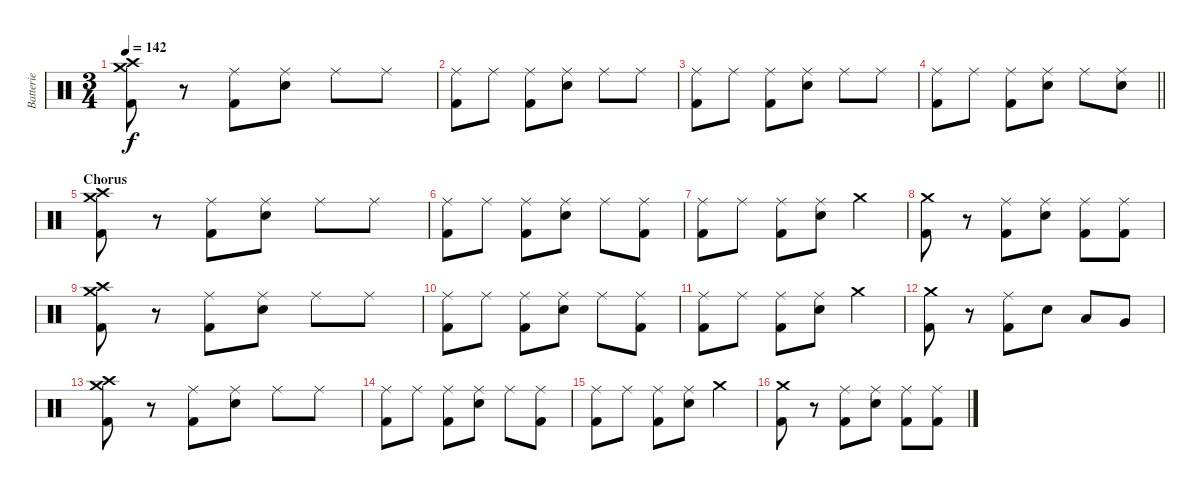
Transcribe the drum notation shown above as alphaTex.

\track ("Batterie" "Batterie") {instrument percussion}
\staff {score}
\articulation defaults
\ts (3 4)
\tempo 142
\clef neutral
\ks c
("Crash medium (hit)" "Crash high (hit)" "Kick (hit) 2").8{dy f} r.8 ("Ride (middle)" "Kick (hit) 2").8 ("Ride (middle)" "Electric Snare (hit)").8 "Ride (middle)".8 "Ride (middle)".8 |
("Ride (middle)" "Kick (hit) 2").8 "Ride (middle)".8 ("Ride (middle)" "Kick (hit) 2").8 ("Ride (middle)" "Electric Snare (hit)").8 "Ride (middle)".8 "Ride (middle)".8 |
("Ride (middle)" "Kick (hit) 2").8 "Ride (middle)".8 ("Ride (middle)" "Kick (hit) 2").8 ("Ride (middle)" "Electric Snare (hit)").8 "Ride (middle)".8 "Ride (middle)".8 |
\barLineRight lightlight
("Ride (middle)" "Kick (hit) 2").8 "Ride (middle)".8 ("Ride (middle)" "Kick (hit) 2").8 ("Ride (middle)" "Electric Snare (hit)").8 "Ride (middle)".8 ("Ride (middle)" "Electric Snare (hit)").8 |
\section ("" "Chorus")
("Crash medium (hit)" "Crash high (hit)" "Kick (hit) 2").8 r.8 ("Ride (middle)" "Kick (hit) 2").8 ("Ride (middle)" "Electric Snare (hit)").8 "Ride (middle)".8 "Ride (middle)".8 |
("Ride (middle)" "Kick (hit) 2").8 "Ride (middle)".8 ("Ride (middle)" "Kick (hit) 2").8 ("Ride (middle)" "Electric Snare (hit)").8 "Ride (middle)".8 ("Ride (middle)" "Kick (hit) 2").8 |
("Ride (middle)" "Kick (hit) 2").8 "Ride (middle)".8 ("Ride (middle)" "Kick (hit) 2").8 ("Ride (middle)" "Electric Snare (hit)").8 "Crash medium (hit)".4 |
("Crash medium (hit)" "Kick (hit) 2").8 r.8 ("Ride (middle)" "Kick (hit) 2").8 ("Ride (middle)" "Electric Snare (hit)").8 ("Ride (middle)" "Kick (hit) 2").8 ("Ride (middle)" "Kick (hit) 2").8 |
("Crash medium (hit)" "Crash high (hit)" "Kick (hit) 2").8 r.8 ("Ride (middle)" "Kick (hit) 2").8 ("Ride (middle)" "Electric Snare (hit)").8 "Ride (middle)".8 "Ride (middle)".8 |
("Ride (middle)" "Kick (hit) 2").8 "Ride (middle)".8 ("Ride (middle)" "Kick (hit) 2").8 ("Ride (middle)" "Electric Snare (hit)").8 "Ride (middle)".8 ("Ride (middle)" "Kick (hit) 2").8 |
("Ride (middle)" "Kick (hit) 2").8 "Ride (middle)".8 ("Ride (middle)" "Kick (hit) 2").8 ("Ride (middle)" "Electric Snare (hit)").8 "Crash medium (hit)".4 |
("Crash medium (hit)" "Kick (hit) 2").8 r.8 ("Ride (middle)" "Kick (hit) 2").8 "Electric Snare (hit)".8 "Low Tom (hit)".8 "Very Low Tom (hit)".8 |
("Crash medium (hit)" "Crash high (hit)" "Kick (hit) 2").8 r.8 ("Ride (middle)" "Kick (hit) 2").8 ("Ride (middle)" "Electric Snare (hit)").8 "Ride (middle)".8 "Ride (middle)".8 |
("Ride (middle)" "Kick (hit) 2").8 "Ride (middle)".8 ("Ride (middle)" "Kick (hit) 2").8 ("Ride (middle)" "Electric Snare (hit)").8 "Ride (middle)".8 ("Ride (middle)" "Kick (hit) 2").8 |
("Ride (middle)" "Kick (hit) 2").8 "Ride (middle)".8 ("Ride (middle)" "Kick (hit) 2").8 ("Ride (middle)" "Electric Snare (hit)").8 "Crash medium (hit)".4 |
("Crash medium (hit)" "Kick (hit) 2").8 r.8 ("Ride (middle)" "Kick (hit) 2").8 ("Ride (middle)" "Electric Snare (hit)").8 ("Ride (middle)" "Kick (hit) 2").8 ("Ride (middle)" "Kick (hit) 2").8
